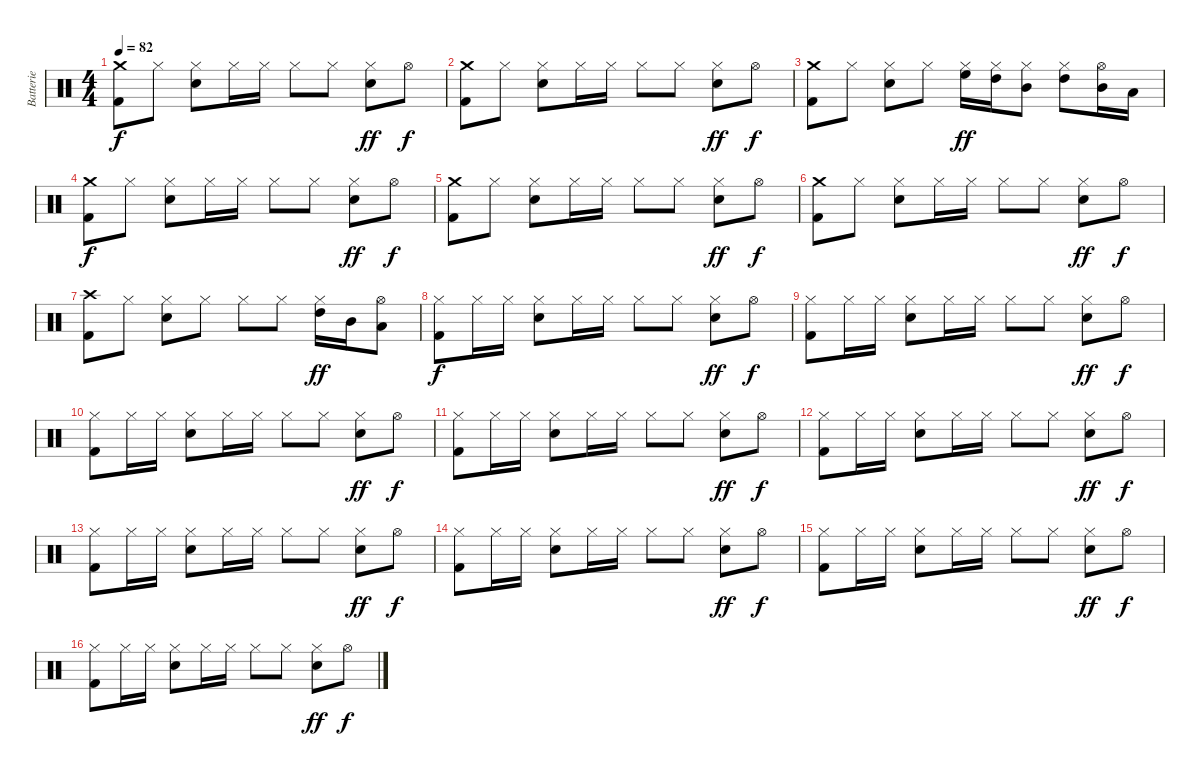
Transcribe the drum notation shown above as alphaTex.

\track ("Batterie" "Batterie") {instrument percussion}
\staff {score}
\articulation defaults
\ts (4 4)
\tempo 82
\clef neutral
\ks c
("Crash medium (hit)" "Kick (hit) 2").8{dy f} "Hi-Hat (closed)".8 ("Hi-Hat (closed)" "Electric Snare (hit)").8 "Hi-Hat (closed)".16 "Hi-Hat (closed)".16 "Hi-Hat (closed)".8 "Hi-Hat (closed)".8 ("Hi-Hat (closed)" "Electric Snare (hit)").8{dy ff} "Hi-Hat (open)".8{dy f} |
("Crash medium (hit)" "Kick (hit) 2").8 "Hi-Hat (closed)".8 ("Hi-Hat (closed)" "Electric Snare (hit)").8 "Hi-Hat (closed)".16 "Hi-Hat (closed)".16 "Hi-Hat (closed)".8 "Hi-Hat (closed)".8 ("Hi-Hat (closed)" "Electric Snare (hit)").8{dy ff} "Hi-Hat (open)".8{dy f} |
("Crash medium (hit)" "Kick (hit) 2").8 "Hi-Hat (closed)".8 ("Hi-Hat (closed)" "Electric Snare (hit)").8 "Hi-Hat (closed)".8 ("Hi-Hat (closed)" "High Floor Tom (hit)").16{dy ff} ("Hi-Hat (closed)" "High Tom (hit)").16 ("Hi-Hat (closed)" "Mid Tom (hit)").8 ("Hi-Hat (closed)" "High Tom (hit)").8 ("Hi-Hat (open)" "Mid Tom (hit)").16 "Low Tom (hit)".16 |
("Crash medium (hit)" "Kick (hit) 2").8{dy f} "Hi-Hat (closed)".8 ("Hi-Hat (closed)" "Electric Snare (hit)").8 "Hi-Hat (closed)".16 "Hi-Hat (closed)".16 "Hi-Hat (closed)".8 "Hi-Hat (closed)".8 ("Hi-Hat (closed)" "Electric Snare (hit)").8{dy ff} "Hi-Hat (open)".8{dy f} |
("Crash medium (hit)" "Kick (hit) 2").8 "Hi-Hat (closed)".8 ("Hi-Hat (closed)" "Electric Snare (hit)").8 "Hi-Hat (closed)".16 "Hi-Hat (closed)".16 "Hi-Hat (closed)".8 "Hi-Hat (closed)".8 ("Hi-Hat (closed)" "Electric Snare (hit)").8{dy ff} "Hi-Hat (open)".8{dy f} |
("Crash medium (hit)" "Kick (hit) 2").8 "Hi-Hat (closed)".8 ("Hi-Hat (closed)" "Electric Snare (hit)").8 "Hi-Hat (closed)".16 "Hi-Hat (closed)".16 "Hi-Hat (closed)".8 "Hi-Hat (closed)".8 ("Hi-Hat (closed)" "Electric Snare (hit)").8{dy ff} "Hi-Hat (open)".8{dy f} |
("Crash high (hit)" "Kick (hit) 2").8 "Hi-Hat (closed)".8 ("Hi-Hat (closed)" "Electric Snare (hit)").8 "Hi-Hat (closed)".8 "Hi-Hat (closed)".8 "Hi-Hat (closed)".8 ("Hi-Hat (closed)" "High Tom (hit)").16{dy ff} "Mid Tom (hit)".16 ("Hi-Hat (open)" "Low Tom (hit)").8 |
("Hi-Hat (closed)" "Kick (hit) 2").8{dy f} "Hi-Hat (closed)".16 "Hi-Hat (closed)".16 ("Hi-Hat (closed)" "Electric Snare (hit)").8 "Hi-Hat (closed)".16 "Hi-Hat (closed)".16 "Hi-Hat (closed)".8 "Hi-Hat (closed)".8 ("Hi-Hat (closed)" "Electric Snare (hit)").8{dy ff} "Hi-Hat (open)".8{dy f} |
("Hi-Hat (closed)" "Kick (hit) 2").8 "Hi-Hat (closed)".16 "Hi-Hat (closed)".16 ("Hi-Hat (closed)" "Electric Snare (hit)").8 "Hi-Hat (closed)".16 "Hi-Hat (closed)".16 "Hi-Hat (closed)".8 "Hi-Hat (closed)".8 ("Hi-Hat (closed)" "Electric Snare (hit)").8{dy ff} "Hi-Hat (open)".8{dy f} |
("Hi-Hat (closed)" "Kick (hit) 2").8 "Hi-Hat (closed)".16 "Hi-Hat (closed)".16 ("Hi-Hat (closed)" "Electric Snare (hit)").8 "Hi-Hat (closed)".16 "Hi-Hat (closed)".16 "Hi-Hat (closed)".8 "Hi-Hat (closed)".8 ("Hi-Hat (closed)" "Electric Snare (hit)").8{dy ff} "Hi-Hat (open)".8{dy f} |
("Hi-Hat (closed)" "Kick (hit) 2").8 "Hi-Hat (closed)".16 "Hi-Hat (closed)".16 ("Hi-Hat (closed)" "Electric Snare (hit)").8 "Hi-Hat (closed)".16 "Hi-Hat (closed)".16 "Hi-Hat (closed)".8 "Hi-Hat (closed)".8 ("Hi-Hat (closed)" "Electric Snare (hit)").8{dy ff} "Hi-Hat (open)".8{dy f} |
("Hi-Hat (closed)" "Kick (hit) 2").8 "Hi-Hat (closed)".16 "Hi-Hat (closed)".16 ("Hi-Hat (closed)" "Electric Snare (hit)").8 "Hi-Hat (closed)".16 "Hi-Hat (closed)".16 "Hi-Hat (closed)".8 "Hi-Hat (closed)".8 ("Hi-Hat (closed)" "Electric Snare (hit)").8{dy ff} "Hi-Hat (open)".8{dy f} |
("Hi-Hat (closed)" "Kick (hit) 2").8 "Hi-Hat (closed)".16 "Hi-Hat (closed)".16 ("Hi-Hat (closed)" "Electric Snare (hit)").8 "Hi-Hat (closed)".16 "Hi-Hat (closed)".16 "Hi-Hat (closed)".8 "Hi-Hat (closed)".8 ("Hi-Hat (closed)" "Electric Snare (hit)").8{dy ff} "Hi-Hat (open)".8{dy f} |
("Hi-Hat (closed)" "Kick (hit) 2").8 "Hi-Hat (closed)".16 "Hi-Hat (closed)".16 ("Hi-Hat (closed)" "Electric Snare (hit)").8 "Hi-Hat (closed)".16 "Hi-Hat (closed)".16 "Hi-Hat (closed)".8 "Hi-Hat (closed)".8 ("Hi-Hat (closed)" "Electric Snare (hit)").8{dy ff} "Hi-Hat (open)".8{dy f} |
("Hi-Hat (closed)" "Kick (hit) 2").8 "Hi-Hat (closed)".16 "Hi-Hat (closed)".16 ("Hi-Hat (closed)" "Electric Snare (hit)").8 "Hi-Hat (closed)".16 "Hi-Hat (closed)".16 "Hi-Hat (closed)".8 "Hi-Hat (closed)".8 ("Hi-Hat (closed)" "Electric Snare (hit)").8{dy ff} "Hi-Hat (open)".8{dy f} |
("Hi-Hat (closed)" "Kick (hit) 2").8 "Hi-Hat (closed)".16 "Hi-Hat (closed)".16 ("Hi-Hat (closed)" "Electric Snare (hit)").8 "Hi-Hat (closed)".16 "Hi-Hat (closed)".16 "Hi-Hat (closed)".8 "Hi-Hat (closed)".8 ("Hi-Hat (closed)" "Electric Snare (hit)").8{dy ff} "Hi-Hat (open)".8{dy f}
